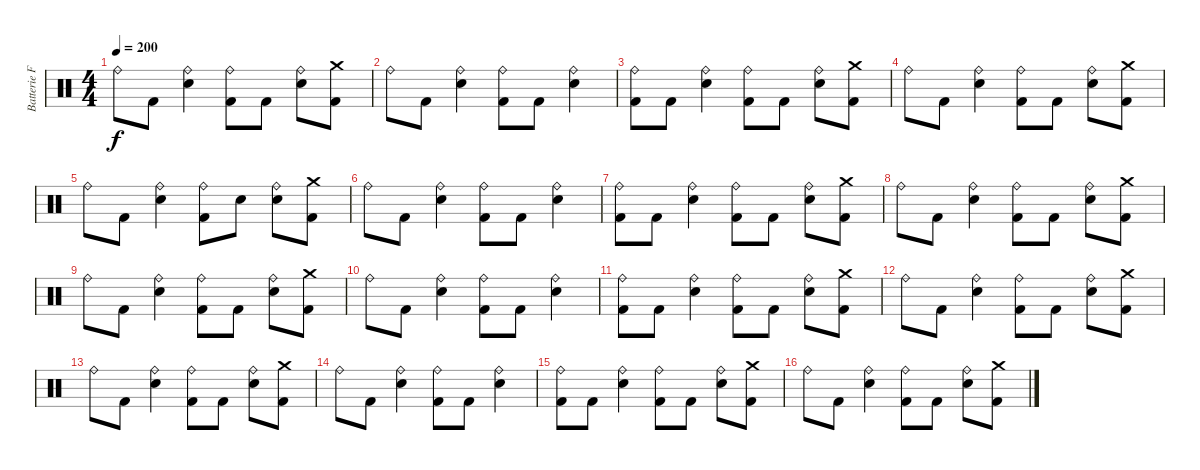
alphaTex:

\track ("Batterie Franck" "Batterie F") {instrument percussion}
\staff {score}
\articulation defaults
\ts (4 4)
\tempo 200
\clef neutral
\ks c "Ride (bell)".8{dy f} "Kick (hit) 2".8
("Ride (bell)" "Snare (hit) 2").4 ("Ride (bell)" "Kick (hit) 2").8 "Kick (hit) 2".8 ("Ride (bell)" "Snare (hit) 2").8 ("Crash medium (hit)" "Kick (hit) 2").8 |
"Ride (bell)".8 "Kick (hit) 2".8 ("Ride (bell)" "Snare (hit) 2").4 ("Ride (bell)" "Kick (hit) 2").8 "Kick (hit) 2".8 ("Ride (bell)" "Snare (hit) 2").4 |
("Ride (bell)" "Kick (hit) 2").8 "Kick (hit) 2".8 ("Ride (bell)" "Snare (hit) 2").4 ("Ride (bell)" "Kick (hit) 2").8 "Kick (hit) 2".8 ("Ride (bell)" "Snare (hit) 2").8 ("Crash medium (hit)" "Kick (hit) 2").8 |
"Ride (bell)".8 "Kick (hit) 2".8 ("Ride (bell)" "Snare (hit) 2").4 ("Ride (bell)" "Kick (hit) 2").8 "Kick (hit) 2".8 ("Ride (bell)" "Snare (hit) 2").8 ("Crash medium (hit)" "Kick (hit) 2").8 |
"Ride (bell)".8 "Kick (hit) 2".8 ("Ride (bell)" "Snare (hit) 2").4 ("Ride (bell)" "Kick (hit) 2").8 "Snare (hit) 2".8 ("Ride (bell)" "Snare (hit) 2").8 ("Crash medium (hit)" "Kick (hit) 2").8 |
"Ride (bell)".8 "Kick (hit) 2".8 ("Ride (bell)" "Snare (hit) 2").4 ("Ride (bell)" "Kick (hit) 2").8 "Kick (hit) 2".8 ("Ride (bell)" "Snare (hit) 2").4 |
("Ride (bell)" "Kick (hit) 2").8 "Kick (hit) 2".8 ("Ride (bell)" "Snare (hit) 2").4 ("Ride (bell)" "Kick (hit) 2").8 "Kick (hit) 2".8 ("Ride (bell)" "Snare (hit) 2").8 ("Crash medium (hit)" "Kick (hit) 2").8 |
"Ride (bell)".8 "Kick (hit) 2".8 ("Ride (bell)" "Snare (hit) 2").4 ("Ride (bell)" "Kick (hit) 2").8 "Kick (hit) 2".8 ("Ride (bell)" "Snare (hit) 2").8 ("Crash medium (hit)" "Kick (hit) 2").8 |
"Ride (bell)".8 "Kick (hit) 2".8 ("Ride (bell)" "Snare (hit) 2").4 ("Ride (bell)" "Kick (hit) 2").8 "Kick (hit) 2".8 ("Ride (bell)" "Snare (hit) 2").8 ("Crash medium (hit)" "Kick (hit) 2").8 |
"Ride (bell)".8 "Kick (hit) 2".8 ("Ride (bell)" "Snare (hit) 2").4 ("Ride (bell)" "Kick (hit) 2").8 "Kick (hit) 2".8 ("Ride (bell)" "Snare (hit) 2").4 |
("Ride (bell)" "Kick (hit) 2").8 "Kick (hit) 2".8 ("Ride (bell)" "Snare (hit) 2").4 ("Ride (bell)" "Kick (hit) 2").8 "Kick (hit) 2".8 ("Ride (bell)" "Snare (hit) 2").8 ("Crash medium (hit)" "Kick (hit) 2").8 |
"Ride (bell)".8 "Kick (hit) 2".8 ("Ride (bell)" "Snare (hit) 2").4 ("Ride (bell)" "Kick (hit) 2").8 "Kick (hit) 2".8 ("Ride (bell)" "Snare (hit) 2").8 ("Crash medium (hit)" "Kick (hit) 2").8 |
"Ride (bell)".8 "Kick (hit) 2".8 ("Ride (bell)" "Snare (hit) 2").4 ("Ride (bell)" "Kick (hit) 2").8 "Kick (hit) 2".8 ("Ride (bell)" "Snare (hit) 2").8 ("Crash medium (hit)" "Kick (hit) 2").8 |
"Ride (bell)".8 "Kick (hit) 2".8 ("Ride (bell)" "Snare (hit) 2").4 ("Ride (bell)" "Kick (hit) 2").8 "Kick (hit) 2".8 ("Ride (bell)" "Snare (hit) 2").4 |
("Ride (bell)" "Kick (hit) 2").8 "Kick (hit) 2".8 ("Ride (bell)" "Snare (hit) 2").4 ("Ride (bell)" "Kick (hit) 2").8 "Kick (hit) 2".8 ("Ride (bell)" "Snare (hit) 2").8 ("Crash medium (hit)" "Kick (hit) 2").8 |
"Ride (bell)".8 "Kick (hit) 2".8 ("Ride (bell)" "Snare (hit) 2").4 ("Ride (bell)" "Kick (hit) 2").8 "Kick (hit) 2".8 ("Ride (bell)" "Snare (hit) 2").8 ("Crash medium (hit)" "Kick (hit) 2").8
